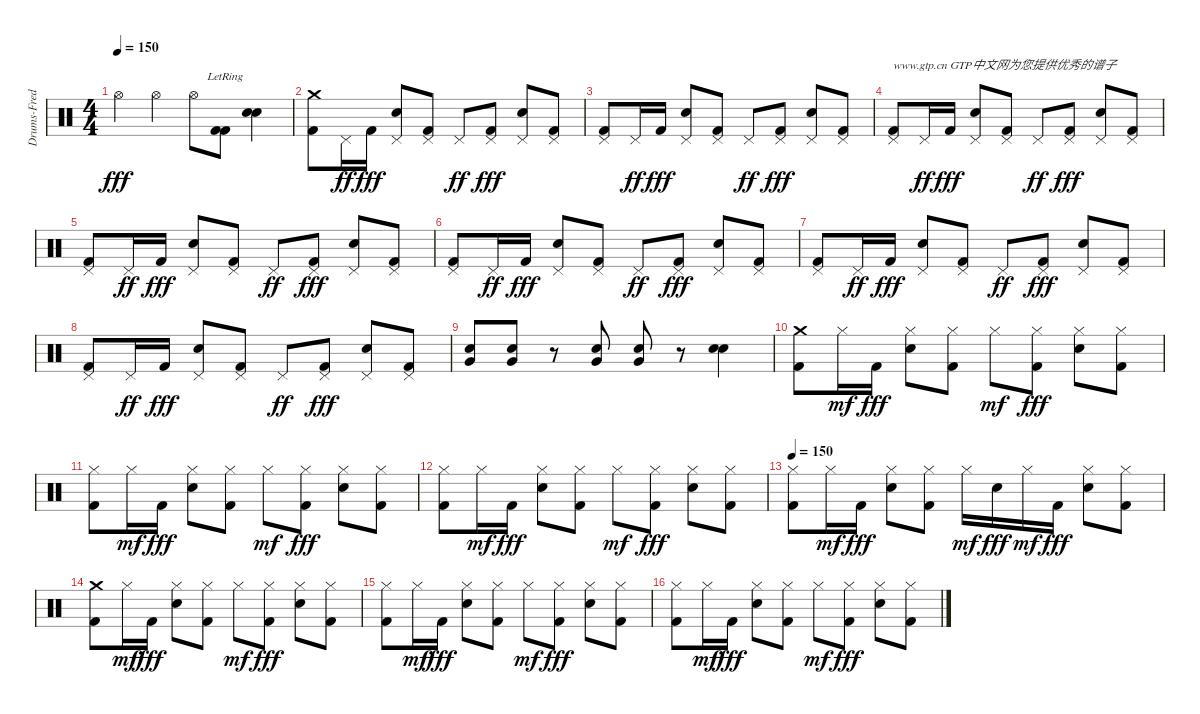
\track ("Drums-Fred" "Drums-Fred") {instrument percussion}
\staff {score}
\articulation defaults
\ts (4 4)
\tempo 150
\clef neutral
\ks c "Hi-Hat (open)".4{dy fff} "Hi-Hat (open)".4 "Hi-Hat (open)".8
("Kick (hit) 2"{lr} "Kick (hit) 2"{lr}).8 ("Snare (hit) 2"{lr} "Snare (hit) 2"{lr}).4 |
("Crash medium (hit)" "Kick (hit) 2").8 "Pedal Hi-Hat (hit)".16{dy ff} "Kick (hit) 2".16{dy fff} ("Pedal Hi-Hat (hit)" "Snare (hit) 2").8 ("Pedal Hi-Hat (hit)" "Kick (hit) 2").8 "Pedal Hi-Hat (hit)".8{dy ff} ("Pedal Hi-Hat (hit)" "Kick (hit) 2").8{dy fff} ("Pedal Hi-Hat (hit)" "Snare (hit) 2").8 ("Pedal Hi-Hat (hit)" "Kick (hit) 2").8 |
("Pedal Hi-Hat (hit)" "Kick (hit) 2").8 "Pedal Hi-Hat (hit)".16{dy ff} "Kick (hit) 2".16{dy fff} ("Pedal Hi-Hat (hit)" "Snare (hit) 2").8 ("Pedal Hi-Hat (hit)" "Kick (hit) 2").8 "Pedal Hi-Hat (hit)".8{dy ff} ("Pedal Hi-Hat (hit)" "Kick (hit) 2").8{dy fff} ("Pedal Hi-Hat (hit)" "Snare (hit) 2").8 ("Pedal Hi-Hat (hit)" "Kick (hit) 2").8 |
("Pedal Hi-Hat (hit)" "Kick (hit) 2").8{txt "www.gtp.cn GTP中文网为您提供优秀的谱子"} "Pedal Hi-Hat (hit)".16{dy ff} "Kick (hit) 2".16{dy fff} ("Pedal Hi-Hat (hit)" "Snare (hit) 2").8 ("Pedal Hi-Hat (hit)" "Kick (hit) 2").8 "Pedal Hi-Hat (hit)".8{dy ff} ("Pedal Hi-Hat (hit)" "Kick (hit) 2").8{dy fff} ("Pedal Hi-Hat (hit)" "Snare (hit) 2").8 ("Pedal Hi-Hat (hit)" "Kick (hit) 2").8 |
("Pedal Hi-Hat (hit)" "Kick (hit) 2").8 "Pedal Hi-Hat (hit)".16{dy ff} "Kick (hit) 2".16{dy fff} ("Pedal Hi-Hat (hit)" "Snare (hit) 2").8 ("Pedal Hi-Hat (hit)" "Kick (hit) 2").8 "Pedal Hi-Hat (hit)".8{dy ff} ("Pedal Hi-Hat (hit)" "Kick (hit) 2").8{dy fff} ("Pedal Hi-Hat (hit)" "Snare (hit) 2").8 ("Pedal Hi-Hat (hit)" "Kick (hit) 2").8 |
("Pedal Hi-Hat (hit)" "Kick (hit) 2").8 "Pedal Hi-Hat (hit)".16{dy ff} "Kick (hit) 2".16{dy fff} ("Pedal Hi-Hat (hit)" "Snare (hit) 2").8 ("Pedal Hi-Hat (hit)" "Kick (hit) 2").8 "Pedal Hi-Hat (hit)".8{dy ff} ("Pedal Hi-Hat (hit)" "Kick (hit) 2").8{dy fff} ("Pedal Hi-Hat (hit)" "Snare (hit) 2").8 ("Pedal Hi-Hat (hit)" "Kick (hit) 2").8 |
("Pedal Hi-Hat (hit)" "Kick (hit) 2").8 "Pedal Hi-Hat (hit)".16{dy ff} "Kick (hit) 2".16{dy fff} ("Pedal Hi-Hat (hit)" "Snare (hit) 2").8 ("Pedal Hi-Hat (hit)" "Kick (hit) 2").8 "Pedal Hi-Hat (hit)".8{dy ff} ("Pedal Hi-Hat (hit)" "Kick (hit) 2").8{dy fff} ("Pedal Hi-Hat (hit)" "Snare (hit) 2").8 ("Pedal Hi-Hat (hit)" "Kick (hit) 2").8 |
("Pedal Hi-Hat (hit)" "Kick (hit) 2").8 "Pedal Hi-Hat (hit)".16{dy ff} "Kick (hit) 2".16{dy fff} ("Pedal Hi-Hat (hit)" "Snare (hit) 2").8 ("Pedal Hi-Hat (hit)" "Kick (hit) 2").8 "Pedal Hi-Hat (hit)".8{dy ff} ("Pedal Hi-Hat (hit)" "Kick (hit) 2").8{dy fff} ("Pedal Hi-Hat (hit)" "Snare (hit) 2").8 ("Pedal Hi-Hat (hit)" "Kick (hit) 2").8 |
("Snare (hit) 2" "Very Low Tom (hit)").8 ("Snare (hit) 2" "Very Low Tom (hit)").8 r.8 ("Snare (hit) 2" "Very Low Tom (hit)").8 ("Snare (hit) 2" "Very Low Tom (hit)").8 r.8 ("Snare (hit) 2" "Snare (hit) 2").4 |
("Crash medium (hit)" "Kick (hit) 2").8 "Hi-Hat (closed)".16{dy mf} "Kick (hit) 2".16{dy fff} ("Hi-Hat (closed)" "Snare (hit) 2").8 ("Hi-Hat (closed)" "Kick (hit) 2").8 "Hi-Hat (closed)".8{dy mf} ("Hi-Hat (closed)" "Kick (hit) 2").8{dy fff} ("Hi-Hat (closed)" "Snare (hit) 2").8 ("Hi-Hat (closed)" "Kick (hit) 2").8 |
("Hi-Hat (closed)" "Kick (hit) 2").8 "Hi-Hat (closed)".16{dy mf} "Kick (hit) 2".16{dy fff} ("Hi-Hat (closed)" "Snare (hit) 2").8 ("Hi-Hat (closed)" "Kick (hit) 2").8 "Hi-Hat (closed)".8{dy mf} ("Hi-Hat (closed)" "Kick (hit) 2").8{dy fff} ("Hi-Hat (closed)" "Snare (hit) 2").8 ("Hi-Hat (closed)" "Kick (hit) 2").8 |
("Hi-Hat (closed)" "Kick (hit) 2").8 "Hi-Hat (closed)".16{dy mf} "Kick (hit) 2".16{dy fff} ("Hi-Hat (closed)" "Snare (hit) 2").8 ("Hi-Hat (closed)" "Kick (hit) 2").8 "Hi-Hat (closed)".8{dy mf} ("Hi-Hat (closed)" "Kick (hit) 2").8{dy fff} ("Hi-Hat (closed)" "Snare (hit) 2").8 ("Hi-Hat (closed)" "Kick (hit) 2").8 |
\tempo 150
("Hi-Hat (closed)" "Kick (hit) 2").8 "Hi-Hat (closed)".16{dy mf} "Kick (hit) 2".16{dy fff} ("Hi-Hat (closed)" "Snare (hit) 2").8 ("Hi-Hat (closed)" "Kick (hit) 2").8 "Hi-Hat (closed)".16{dy mf} "Snare (hit) 2".16{dy fff} "Hi-Hat (closed)".16{dy mf} "Kick (hit) 2".16{dy fff} ("Hi-Hat (closed)" "Snare (hit) 2").8 ("Hi-Hat (closed)" "Kick (hit) 2").8 |
("Crash medium (hit)" "Kick (hit) 2").8 "Hi-Hat (closed)".16{dy mf} "Kick (hit) 2".16{dy fff} ("Hi-Hat (closed)" "Snare (hit) 2").8 ("Hi-Hat (closed)" "Kick (hit) 2").8 "Hi-Hat (closed)".8{dy mf} ("Hi-Hat (closed)" "Kick (hit) 2").8{dy fff} ("Hi-Hat (closed)" "Snare (hit) 2").8 ("Hi-Hat (closed)" "Kick (hit) 2").8 |
("Hi-Hat (closed)" "Kick (hit) 2").8 "Hi-Hat (closed)".16{dy mf} "Kick (hit) 2".16{dy fff} ("Hi-Hat (closed)" "Snare (hit) 2").8 ("Hi-Hat (closed)" "Kick (hit) 2").8 "Hi-Hat (closed)".8{dy mf} ("Hi-Hat (closed)" "Kick (hit) 2").8{dy fff} ("Hi-Hat (closed)" "Snare (hit) 2").8 ("Hi-Hat (closed)" "Kick (hit) 2").8 |
("Hi-Hat (closed)" "Kick (hit) 2").8 "Hi-Hat (closed)".16{dy mf} "Kick (hit) 2".16{dy fff} ("Hi-Hat (closed)" "Snare (hit) 2").8 ("Hi-Hat (closed)" "Kick (hit) 2").8 "Hi-Hat (closed)".8{dy mf} ("Hi-Hat (closed)" "Kick (hit) 2").8{dy fff} ("Hi-Hat (closed)" "Snare (hit) 2").8 ("Hi-Hat (closed)" "Kick (hit) 2").8
